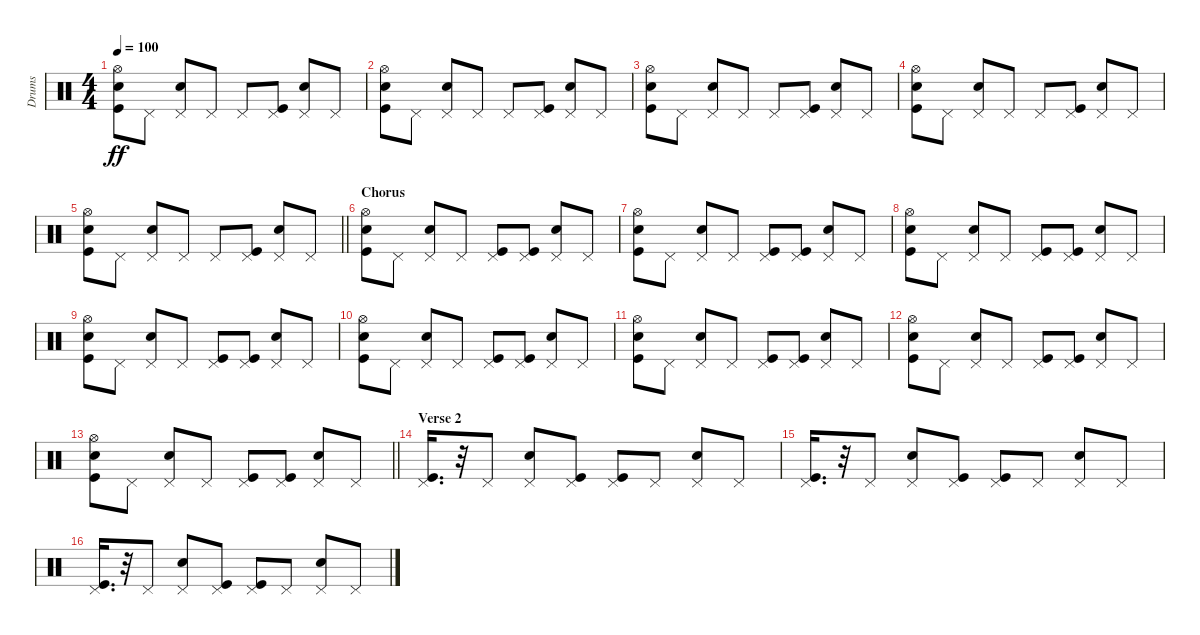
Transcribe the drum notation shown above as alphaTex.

\track ("Drums" "Drums") {instrument percussion}
\staff {score}
\articulation defaults
\ts (4 4)
\tempo 100
\clef neutral
\ks c
("Kick (hit)" "Electric Snare (hit)" "Hi-Hat (open)").8{dy ff} "Pedal Hi-Hat (hit)".8 ("Electric Snare (hit)" "Pedal Hi-Hat (hit)").8 "Pedal Hi-Hat (hit)".8 "Pedal Hi-Hat (hit)".8 ("Kick (hit)" "Pedal Hi-Hat (hit)").8 ("Electric Snare (hit)" "Pedal Hi-Hat (hit)").8 "Pedal Hi-Hat (hit)".8 |
("Kick (hit)" "Electric Snare (hit)" "Hi-Hat (open)").8 "Pedal Hi-Hat (hit)".8 ("Electric Snare (hit)" "Pedal Hi-Hat (hit)").8 "Pedal Hi-Hat (hit)".8 "Pedal Hi-Hat (hit)".8 ("Kick (hit)" "Pedal Hi-Hat (hit)").8 ("Electric Snare (hit)" "Pedal Hi-Hat (hit)").8 "Pedal Hi-Hat (hit)".8 |
("Kick (hit)" "Electric Snare (hit)" "Hi-Hat (open)").8 "Pedal Hi-Hat (hit)".8 ("Electric Snare (hit)" "Pedal Hi-Hat (hit)").8 "Pedal Hi-Hat (hit)".8 "Pedal Hi-Hat (hit)".8 ("Kick (hit)" "Pedal Hi-Hat (hit)").8 ("Electric Snare (hit)" "Pedal Hi-Hat (hit)").8 "Pedal Hi-Hat (hit)".8 |
("Kick (hit)" "Electric Snare (hit)" "Hi-Hat (open)").8 "Pedal Hi-Hat (hit)".8 ("Electric Snare (hit)" "Pedal Hi-Hat (hit)").8 "Pedal Hi-Hat (hit)".8 "Pedal Hi-Hat (hit)".8 ("Kick (hit)" "Pedal Hi-Hat (hit)").8 ("Electric Snare (hit)" "Pedal Hi-Hat (hit)").8 "Pedal Hi-Hat (hit)".8 |
\barLineRight lightlight
("Kick (hit)" "Electric Snare (hit)" "Hi-Hat (open)").8 "Pedal Hi-Hat (hit)".8 ("Electric Snare (hit)" "Pedal Hi-Hat (hit)").8 "Pedal Hi-Hat (hit)".8 "Pedal Hi-Hat (hit)".8 ("Kick (hit)" "Pedal Hi-Hat (hit)").8 ("Electric Snare (hit)" "Pedal Hi-Hat (hit)").8 "Pedal Hi-Hat (hit)".8 |
\section ("" "Chorus")
("Kick (hit)" "Electric Snare (hit)" "Hi-Hat (open)").8 "Pedal Hi-Hat (hit)".8 ("Electric Snare (hit)" "Pedal Hi-Hat (hit)").8 "Pedal Hi-Hat (hit)".8 ("Kick (hit)" "Pedal Hi-Hat (hit)").8 ("Kick (hit)" "Pedal Hi-Hat (hit)").8 ("Electric Snare (hit)" "Pedal Hi-Hat (hit)").8 "Pedal Hi-Hat (hit)".8 |
("Kick (hit)" "Electric Snare (hit)" "Hi-Hat (open)").8 "Pedal Hi-Hat (hit)".8 ("Electric Snare (hit)" "Pedal Hi-Hat (hit)").8 "Pedal Hi-Hat (hit)".8 ("Kick (hit)" "Pedal Hi-Hat (hit)").8 ("Kick (hit)" "Pedal Hi-Hat (hit)").8 ("Electric Snare (hit)" "Pedal Hi-Hat (hit)").8 "Pedal Hi-Hat (hit)".8 |
("Kick (hit)" "Electric Snare (hit)" "Hi-Hat (open)").8 "Pedal Hi-Hat (hit)".8 ("Electric Snare (hit)" "Pedal Hi-Hat (hit)").8 "Pedal Hi-Hat (hit)".8 ("Kick (hit)" "Pedal Hi-Hat (hit)").8 ("Kick (hit)" "Pedal Hi-Hat (hit)").8 ("Electric Snare (hit)" "Pedal Hi-Hat (hit)").8 "Pedal Hi-Hat (hit)".8 |
("Kick (hit)" "Electric Snare (hit)" "Hi-Hat (open)").8 "Pedal Hi-Hat (hit)".8 ("Electric Snare (hit)" "Pedal Hi-Hat (hit)").8 "Pedal Hi-Hat (hit)".8 ("Kick (hit)" "Pedal Hi-Hat (hit)").8 ("Kick (hit)" "Pedal Hi-Hat (hit)").8 ("Electric Snare (hit)" "Pedal Hi-Hat (hit)").8 "Pedal Hi-Hat (hit)".8 |
("Kick (hit)" "Electric Snare (hit)" "Hi-Hat (open)").8 "Pedal Hi-Hat (hit)".8 ("Electric Snare (hit)" "Pedal Hi-Hat (hit)").8 "Pedal Hi-Hat (hit)".8 ("Kick (hit)" "Pedal Hi-Hat (hit)").8 ("Kick (hit)" "Pedal Hi-Hat (hit)").8 ("Electric Snare (hit)" "Pedal Hi-Hat (hit)").8 "Pedal Hi-Hat (hit)".8 |
("Kick (hit)" "Electric Snare (hit)" "Hi-Hat (open)").8 "Pedal Hi-Hat (hit)".8 ("Electric Snare (hit)" "Pedal Hi-Hat (hit)").8 "Pedal Hi-Hat (hit)".8 ("Kick (hit)" "Pedal Hi-Hat (hit)").8 ("Kick (hit)" "Pedal Hi-Hat (hit)").8 ("Electric Snare (hit)" "Pedal Hi-Hat (hit)").8 "Pedal Hi-Hat (hit)".8 |
("Kick (hit)" "Electric Snare (hit)" "Hi-Hat (open)").8 "Pedal Hi-Hat (hit)".8 ("Electric Snare (hit)" "Pedal Hi-Hat (hit)").8 "Pedal Hi-Hat (hit)".8 ("Kick (hit)" "Pedal Hi-Hat (hit)").8 ("Kick (hit)" "Pedal Hi-Hat (hit)").8 ("Electric Snare (hit)" "Pedal Hi-Hat (hit)").8 "Pedal Hi-Hat (hit)".8 |
\barLineRight lightlight
("Kick (hit)" "Electric Snare (hit)" "Hi-Hat (open)").8 "Pedal Hi-Hat (hit)".8 ("Electric Snare (hit)" "Pedal Hi-Hat (hit)").8 "Pedal Hi-Hat (hit)".8 ("Kick (hit)" "Pedal Hi-Hat (hit)").8 ("Kick (hit)" "Pedal Hi-Hat (hit)").8 ("Electric Snare (hit)" "Pedal Hi-Hat (hit)").8 "Pedal Hi-Hat (hit)".8 |
\section ("" "Verse 2")
("Pedal Hi-Hat (hit)" "Kick (hit)").16{d} r.32 "Pedal Hi-Hat (hit)".8 ("Electric Snare (hit)" "Pedal Hi-Hat (hit)").8 ("Kick (hit)" "Pedal Hi-Hat (hit)").8 ("Kick (hit)" "Pedal Hi-Hat (hit)").8 "Pedal Hi-Hat (hit)".8 ("Electric Snare (hit)" "Pedal Hi-Hat (hit)").8 "Pedal Hi-Hat (hit)".8 |
("Pedal Hi-Hat (hit)" "Kick (hit)").16{d} r.32 "Pedal Hi-Hat (hit)".8 ("Electric Snare (hit)" "Pedal Hi-Hat (hit)").8 ("Kick (hit)" "Pedal Hi-Hat (hit)").8 ("Kick (hit)" "Pedal Hi-Hat (hit)").8 "Pedal Hi-Hat (hit)".8 ("Electric Snare (hit)" "Pedal Hi-Hat (hit)").8 "Pedal Hi-Hat (hit)".8 |
("Pedal Hi-Hat (hit)" "Kick (hit)").16{d} r.32 "Pedal Hi-Hat (hit)".8 ("Electric Snare (hit)" "Pedal Hi-Hat (hit)").8 ("Kick (hit)" "Pedal Hi-Hat (hit)").8 ("Kick (hit)" "Pedal Hi-Hat (hit)").8 "Pedal Hi-Hat (hit)".8 ("Electric Snare (hit)" "Pedal Hi-Hat (hit)").8 "Pedal Hi-Hat (hit)".8
